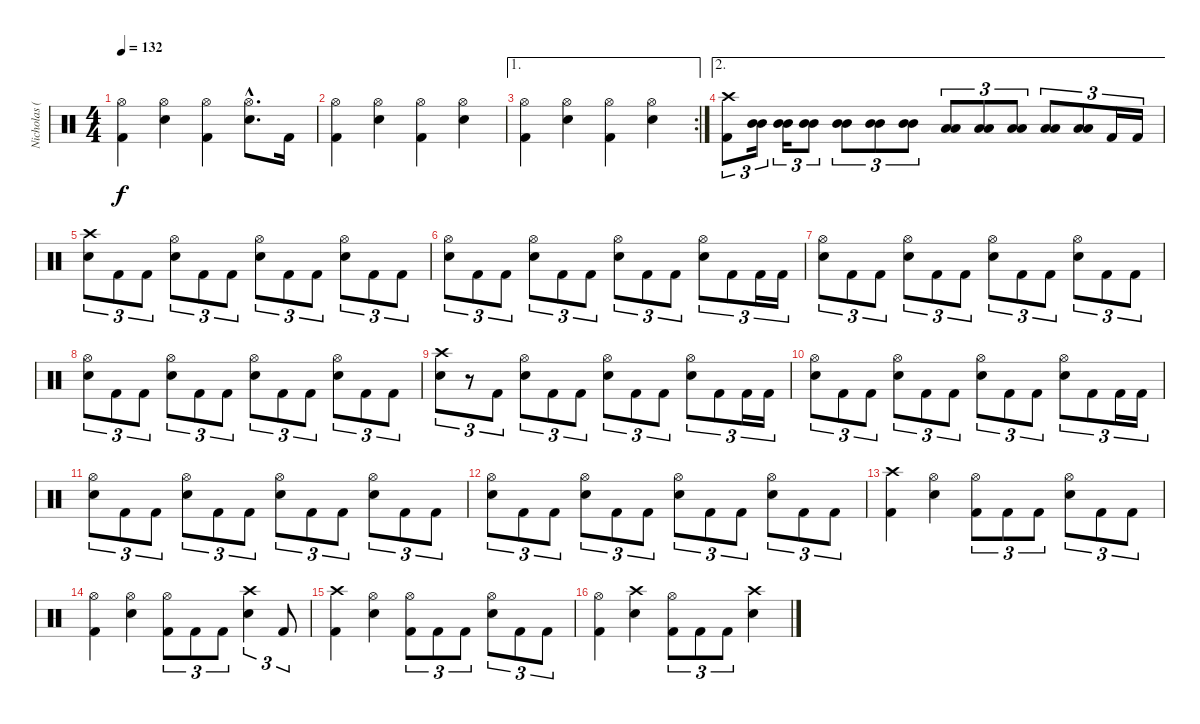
\track ("Nicholas (Drums)" "Nicholas (") {instrument percussion}
\staff {score}
\articulation defaults
\ts (4 4)
\tempo 132
\clef neutral
\ks c
("Hi-Hat (open)" "Kick (hit) 2").4{dy f} ("Hi-Hat (open)" "Electric Snare (hit)").4 ("Hi-Hat (open)" "Kick (hit) 2").4 ("Hi-Hat (open)"{hac} "Electric Snare (hit)"{hac}).8{d} "Kick (hit) 2".16 |
("Hi-Hat (open)" "Kick (hit) 2").4 ("Hi-Hat (open)" "Electric Snare (hit)").4 ("Hi-Hat (open)" "Kick (hit) 2").4 ("Hi-Hat (open)" "Electric Snare (hit)").4 |
\ae 1
\rc 2
("Hi-Hat (open)" "Kick (hit) 2").4 ("Hi-Hat (open)" "Electric Snare (hit)").4 ("Hi-Hat (open)" "Kick (hit) 2").4 ("Hi-Hat (open)" "Electric Snare (hit)").4 |
\ae 2
("Crash high (hit)" "Kick (hit) 2").8{tu (3 2)} ("Mid Tom (hit)" "Mid Tom (hit)").16{tu (3 2) balance 10} ("Mid Tom (hit)" "Mid Tom (hit)").16{tu (3 2)} ("Mid Tom (hit)" "Mid Tom (hit)").8{tu (3 2)} ("Mid Tom (hit)" "Mid Tom (hit)").8{tu (3 2)} ("Mid Tom (hit)" "Mid Tom (hit)").8{tu (3 2)} ("Mid Tom (hit)" "Mid Tom (hit)").8{tu (3 2)} ("Low Tom (hit)" "Low Tom (hit)").8{tu (3 2) balance 6} ("Low Tom (hit)" "Low Tom (hit)").8{tu (3 2)} ("Low Tom (hit)" "Low Tom (hit)").8{tu (3 2)} ("Low Tom (hit)" "Low Tom (hit)").8{tu (3 2)} ("Low Tom (hit)" "Low Tom (hit)").8{tu (3 2)} "Kick (hit) 2".16{tu (3 2) balance 8} "Kick (hit) 2".16{tu (3 2)} |
("Crash high (hit)" "Electric Snare (hit)").8{tu (3 2)} "Kick (hit) 2".8{tu (3 2)} "Kick (hit) 2".8{tu (3 2)} ("Hi-Hat (open)" "Electric Snare (hit)").8{tu (3 2)} "Kick (hit) 2".8{tu (3 2)} "Kick (hit) 2".8{tu (3 2)} ("Hi-Hat (open)" "Electric Snare (hit)").8{tu (3 2)} "Kick (hit) 2".8{tu (3 2)} "Kick (hit) 2".8{tu (3 2)} ("Hi-Hat (open)" "Electric Snare (hit)").8{tu (3 2)} "Kick (hit) 2".8{tu (3 2)} "Kick (hit) 2".8{tu (3 2)} |
("Hi-Hat (open)" "Electric Snare (hit)").8{tu (3 2)} "Kick (hit) 2".8{tu (3 2)} "Kick (hit) 2".8{tu (3 2)} ("Hi-Hat (open)" "Electric Snare (hit)").8{tu (3 2)} "Kick (hit) 2".8{tu (3 2)} "Kick (hit) 2".8{tu (3 2)} ("Hi-Hat (open)" "Electric Snare (hit)").8{tu (3 2)} "Kick (hit) 2".8{tu (3 2)} "Kick (hit) 2".8{tu (3 2)} ("Hi-Hat (open)" "Electric Snare (hit)").8{tu (3 2)} "Kick (hit) 2".8{tu (3 2)} "Kick (hit) 2".16{tu (3 2)} "Kick (hit) 2".16{tu (3 2)} |
("Hi-Hat (open)" "Electric Snare (hit)").8{tu (3 2)} "Kick (hit) 2".8{tu (3 2)} "Kick (hit) 2".8{tu (3 2)} ("Hi-Hat (open)" "Electric Snare (hit)").8{tu (3 2)} "Kick (hit) 2".8{tu (3 2)} "Kick (hit) 2".8{tu (3 2)} ("Hi-Hat (open)" "Electric Snare (hit)").8{tu (3 2)} "Kick (hit) 2".8{tu (3 2)} "Kick (hit) 2".8{tu (3 2)} ("Hi-Hat (open)" "Electric Snare (hit)").8{tu (3 2)} "Kick (hit) 2".8{tu (3 2)} "Kick (hit) 2".8{tu (3 2)} |
("Hi-Hat (open)" "Electric Snare (hit)").8{tu (3 2)} "Kick (hit) 2".8{tu (3 2)} "Kick (hit) 2".8{tu (3 2)} ("Hi-Hat (open)" "Electric Snare (hit)").8{tu (3 2)} "Kick (hit) 2".8{tu (3 2)} "Kick (hit) 2".8{tu (3 2)} ("Hi-Hat (open)" "Electric Snare (hit)").8{tu (3 2)} "Kick (hit) 2".8{tu (3 2)} "Kick (hit) 2".8{tu (3 2)} ("Hi-Hat (open)" "Electric Snare (hit)").8{tu (3 2)} "Kick (hit) 2".8{tu (3 2)} "Kick (hit) 2".8{tu (3 2)} |
("Crash high (hit)" "Electric Snare (hit)").8{tu (3 2)} r.8{tu (3 2)} "Kick (hit) 2".8{tu (3 2)} ("Hi-Hat (open)" "Electric Snare (hit)").8{tu (3 2)} "Kick (hit) 2".8{tu (3 2)} "Kick (hit) 2".8{tu (3 2)} ("Hi-Hat (open)" "Electric Snare (hit)").8{tu (3 2)} "Kick (hit) 2".8{tu (3 2)} "Kick (hit) 2".8{tu (3 2)} ("Hi-Hat (open)" "Electric Snare (hit)").8{tu (3 2)} "Kick (hit) 2".8{tu (3 2)} "Kick (hit) 2".16{tu (3 2)} "Kick (hit) 2".16{tu (3 2)} |
("Hi-Hat (open)" "Electric Snare (hit)").8{tu (3 2)} "Kick (hit) 2".8{tu (3 2)} "Kick (hit) 2".8{tu (3 2)} ("Hi-Hat (open)" "Electric Snare (hit)").8{tu (3 2)} "Kick (hit) 2".8{tu (3 2)} "Kick (hit) 2".8{tu (3 2)} ("Hi-Hat (open)" "Electric Snare (hit)").8{tu (3 2)} "Kick (hit) 2".8{tu (3 2)} "Kick (hit) 2".8{tu (3 2)} ("Hi-Hat (open)" "Electric Snare (hit)").8{tu (3 2)} "Kick (hit) 2".8{tu (3 2)} "Kick (hit) 2".16{tu (3 2)} "Kick (hit) 2".16{tu (3 2)} |
("Hi-Hat (open)" "Electric Snare (hit)").8{tu (3 2)} "Kick (hit) 2".8{tu (3 2)} "Kick (hit) 2".8{tu (3 2)} ("Hi-Hat (open)" "Electric Snare (hit)").8{tu (3 2)} "Kick (hit) 2".8{tu (3 2)} "Kick (hit) 2".8{tu (3 2)} ("Hi-Hat (open)" "Electric Snare (hit)").8{tu (3 2)} "Kick (hit) 2".8{tu (3 2)} "Kick (hit) 2".8{tu (3 2)} ("Hi-Hat (open)" "Electric Snare (hit)").8{tu (3 2)} "Kick (hit) 2".8{tu (3 2)} "Kick (hit) 2".8{tu (3 2)} |
("Hi-Hat (open)" "Electric Snare (hit)").8{tu (3 2)} "Kick (hit) 2".8{tu (3 2)} "Kick (hit) 2".8{tu (3 2)} ("Hi-Hat (open)" "Electric Snare (hit)").8{tu (3 2)} "Kick (hit) 2".8{tu (3 2)} "Kick (hit) 2".8{tu (3 2)} ("Hi-Hat (open)" "Electric Snare (hit)").8{tu (3 2)} "Kick (hit) 2".8{tu (3 2)} "Kick (hit) 2".8{tu (3 2)} ("Hi-Hat (open)" "Electric Snare (hit)").8{tu (3 2)} "Kick (hit) 2".8{tu (3 2)} "Kick (hit) 2".8{tu (3 2)} |
("Crash high (hit)" "Kick (hit) 2").4 ("Hi-Hat (open)" "Electric Snare (hit)").4 ("Hi-Hat (open)" "Kick (hit) 2").8{tu (3 2)} "Kick (hit) 2".8{tu (3 2)} "Kick (hit) 2".8{tu (3 2)} ("Hi-Hat (open)" "Electric Snare (hit)").8{tu (3 2)} "Kick (hit) 2".8{tu (3 2)} "Kick (hit) 2".8{tu (3 2)} |
("Hi-Hat (open)" "Kick (hit) 2").4 ("Hi-Hat (open)" "Electric Snare (hit)").4 ("Hi-Hat (open)" "Kick (hit) 2").8{tu (3 2)} "Kick (hit) 2".8{tu (3 2)} "Kick (hit) 2".8{tu (3 2)} ("Crash high (hit)" "Electric Snare (hit)").4{tu (3 2)} "Kick (hit) 2".8{tu (3 2)} |
("Crash high (hit)" "Kick (hit) 2").4 ("Hi-Hat (open)" "Electric Snare (hit)").4 ("Hi-Hat (open)" "Kick (hit) 2").8{tu (3 2)} "Kick (hit) 2".8{tu (3 2)} "Kick (hit) 2".8{tu (3 2)} ("Hi-Hat (open)" "Electric Snare (hit)").8{tu (3 2)} "Kick (hit) 2".8{tu (3 2)} "Kick (hit) 2".8{tu (3 2)} |
("Hi-Hat (open)" "Kick (hit) 2").4 ("Crash high (hit)" "Electric Snare (hit)").4 ("Hi-Hat (open)" "Kick (hit) 2").8{tu (3 2)} "Kick (hit) 2".8{tu (3 2)} "Kick (hit) 2".8{tu (3 2)} ("Crash high (hit)" "Electric Snare (hit)").4
